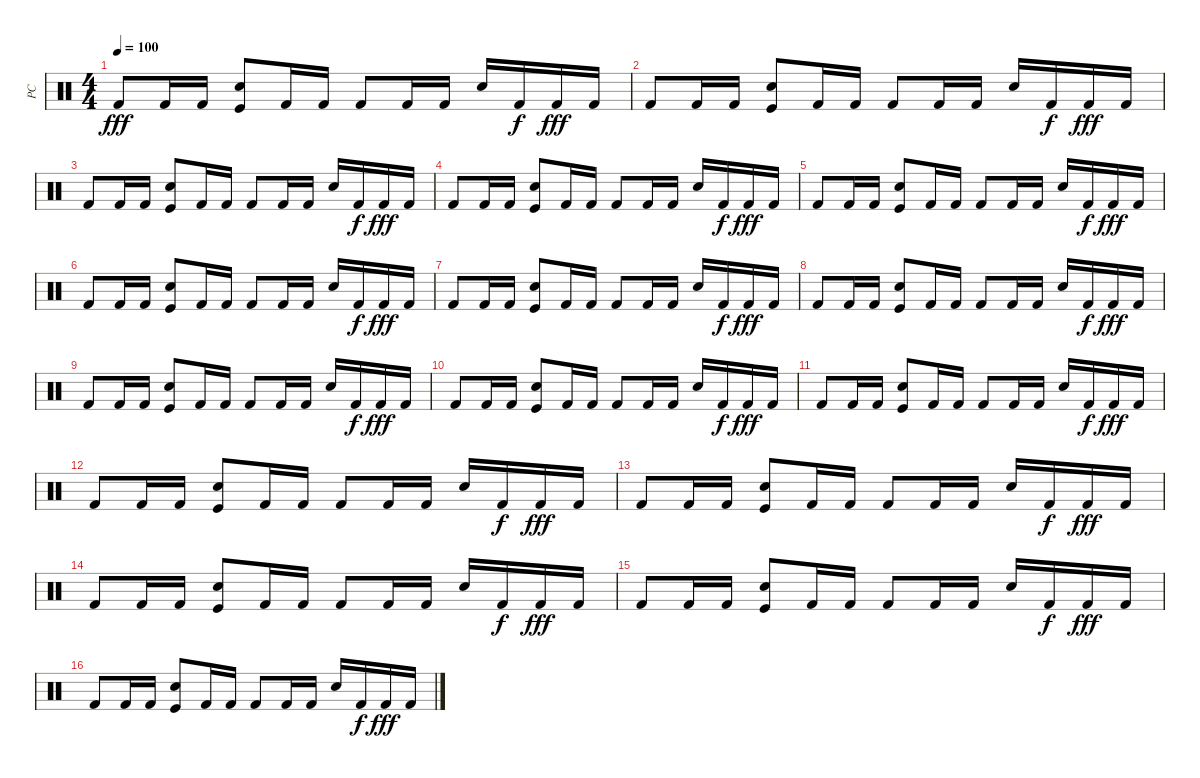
\track ("PC" "PC") {instrument percussion}
\staff {score}
\articulation defaults
\ts (4 4)
\tempo 100
\clef neutral
\ks c "Kick (hit) 2".8{dy fff} "Kick (hit) 2".16 "Kick (hit) 2".16
("Kick (hit)" "Electric Snare (hit)").8 "Kick (hit) 2".16 "Kick (hit) 2".16 "Kick (hit) 2".8 "Kick (hit) 2".16 "Kick (hit) 2".16 "Electric Snare (hit)".16 "Kick (hit) 2".16{dy f} "Kick (hit) 2".16{dy fff} "Kick (hit) 2".16 |
"Kick (hit) 2".8 "Kick (hit) 2".16 "Kick (hit) 2".16 ("Kick (hit)" "Electric Snare (hit)").8 "Kick (hit) 2".16 "Kick (hit) 2".16 "Kick (hit) 2".8 "Kick (hit) 2".16 "Kick (hit) 2".16 "Electric Snare (hit)".16 "Kick (hit) 2".16{dy f} "Kick (hit) 2".16{dy fff} "Kick (hit) 2".16 |
"Kick (hit) 2".8 "Kick (hit) 2".16 "Kick (hit) 2".16 ("Kick (hit)" "Electric Snare (hit)").8 "Kick (hit) 2".16 "Kick (hit) 2".16 "Kick (hit) 2".8 "Kick (hit) 2".16 "Kick (hit) 2".16 "Electric Snare (hit)".16 "Kick (hit) 2".16{dy f} "Kick (hit) 2".16{dy fff} "Kick (hit) 2".16 |
"Kick (hit) 2".8 "Kick (hit) 2".16 "Kick (hit) 2".16 ("Kick (hit)" "Electric Snare (hit)").8 "Kick (hit) 2".16 "Kick (hit) 2".16 "Kick (hit) 2".8 "Kick (hit) 2".16 "Kick (hit) 2".16 "Electric Snare (hit)".16 "Kick (hit) 2".16{dy f} "Kick (hit) 2".16{dy fff} "Kick (hit) 2".16 |
"Kick (hit) 2".8 "Kick (hit) 2".16 "Kick (hit) 2".16 ("Kick (hit)" "Electric Snare (hit)").8 "Kick (hit) 2".16 "Kick (hit) 2".16 "Kick (hit) 2".8 "Kick (hit) 2".16 "Kick (hit) 2".16 "Electric Snare (hit)".16 "Kick (hit) 2".16{dy f} "Kick (hit) 2".16{dy fff} "Kick (hit) 2".16 |
"Kick (hit) 2".8 "Kick (hit) 2".16 "Kick (hit) 2".16 ("Kick (hit)" "Electric Snare (hit)").8 "Kick (hit) 2".16 "Kick (hit) 2".16 "Kick (hit) 2".8 "Kick (hit) 2".16 "Kick (hit) 2".16 "Electric Snare (hit)".16 "Kick (hit) 2".16{dy f} "Kick (hit) 2".16{dy fff} "Kick (hit) 2".16 |
"Kick (hit) 2".8 "Kick (hit) 2".16 "Kick (hit) 2".16 ("Kick (hit)" "Electric Snare (hit)").8 "Kick (hit) 2".16 "Kick (hit) 2".16 "Kick (hit) 2".8 "Kick (hit) 2".16 "Kick (hit) 2".16 "Electric Snare (hit)".16 "Kick (hit) 2".16{dy f} "Kick (hit) 2".16{dy fff} "Kick (hit) 2".16 |
"Kick (hit) 2".8 "Kick (hit) 2".16 "Kick (hit) 2".16 ("Kick (hit)" "Electric Snare (hit)").8 "Kick (hit) 2".16 "Kick (hit) 2".16 "Kick (hit) 2".8 "Kick (hit) 2".16 "Kick (hit) 2".16 "Electric Snare (hit)".16 "Kick (hit) 2".16{dy f} "Kick (hit) 2".16{dy fff} "Kick (hit) 2".16 |
"Kick (hit) 2".8 "Kick (hit) 2".16 "Kick (hit) 2".16 ("Kick (hit)" "Electric Snare (hit)").8 "Kick (hit) 2".16 "Kick (hit) 2".16 "Kick (hit) 2".8 "Kick (hit) 2".16 "Kick (hit) 2".16 "Electric Snare (hit)".16 "Kick (hit) 2".16{dy f} "Kick (hit) 2".16{dy fff} "Kick (hit) 2".16 |
"Kick (hit) 2".8 "Kick (hit) 2".16 "Kick (hit) 2".16 ("Kick (hit)" "Electric Snare (hit)").8 "Kick (hit) 2".16 "Kick (hit) 2".16 "Kick (hit) 2".8 "Kick (hit) 2".16 "Kick (hit) 2".16 "Electric Snare (hit)".16 "Kick (hit) 2".16{dy f} "Kick (hit) 2".16{dy fff} "Kick (hit) 2".16 |
"Kick (hit) 2".8 "Kick (hit) 2".16 "Kick (hit) 2".16 ("Kick (hit)" "Electric Snare (hit)").8 "Kick (hit) 2".16 "Kick (hit) 2".16 "Kick (hit) 2".8 "Kick (hit) 2".16 "Kick (hit) 2".16 "Electric Snare (hit)".16 "Kick (hit) 2".16{dy f} "Kick (hit) 2".16{dy fff} "Kick (hit) 2".16 |
"Kick (hit) 2".8 "Kick (hit) 2".16 "Kick (hit) 2".16 ("Kick (hit)" "Electric Snare (hit)").8 "Kick (hit) 2".16 "Kick (hit) 2".16 "Kick (hit) 2".8 "Kick (hit) 2".16 "Kick (hit) 2".16 "Electric Snare (hit)".16 "Kick (hit) 2".16{dy f} "Kick (hit) 2".16{dy fff} "Kick (hit) 2".16 |
"Kick (hit) 2".8 "Kick (hit) 2".16 "Kick (hit) 2".16 ("Kick (hit)" "Electric Snare (hit)").8 "Kick (hit) 2".16 "Kick (hit) 2".16 "Kick (hit) 2".8 "Kick (hit) 2".16 "Kick (hit) 2".16 "Electric Snare (hit)".16 "Kick (hit) 2".16{dy f} "Kick (hit) 2".16{dy fff} "Kick (hit) 2".16 |
"Kick (hit) 2".8 "Kick (hit) 2".16 "Kick (hit) 2".16 ("Kick (hit)" "Electric Snare (hit)").8 "Kick (hit) 2".16 "Kick (hit) 2".16 "Kick (hit) 2".8 "Kick (hit) 2".16 "Kick (hit) 2".16 "Electric Snare (hit)".16 "Kick (hit) 2".16{dy f} "Kick (hit) 2".16{dy fff} "Kick (hit) 2".16 |
"Kick (hit) 2".8 "Kick (hit) 2".16 "Kick (hit) 2".16 ("Kick (hit)" "Electric Snare (hit)").8 "Kick (hit) 2".16 "Kick (hit) 2".16 "Kick (hit) 2".8 "Kick (hit) 2".16 "Kick (hit) 2".16 "Electric Snare (hit)".16 "Kick (hit) 2".16{dy f} "Kick (hit) 2".16{dy fff} "Kick (hit) 2".16 |
"Kick (hit) 2".8 "Kick (hit) 2".16 "Kick (hit) 2".16 ("Kick (hit)" "Electric Snare (hit)").8 "Kick (hit) 2".16 "Kick (hit) 2".16 "Kick (hit) 2".8 "Kick (hit) 2".16 "Kick (hit) 2".16 "Electric Snare (hit)".16 "Kick (hit) 2".16{dy f} "Kick (hit) 2".16{dy fff} "Kick (hit) 2".16
